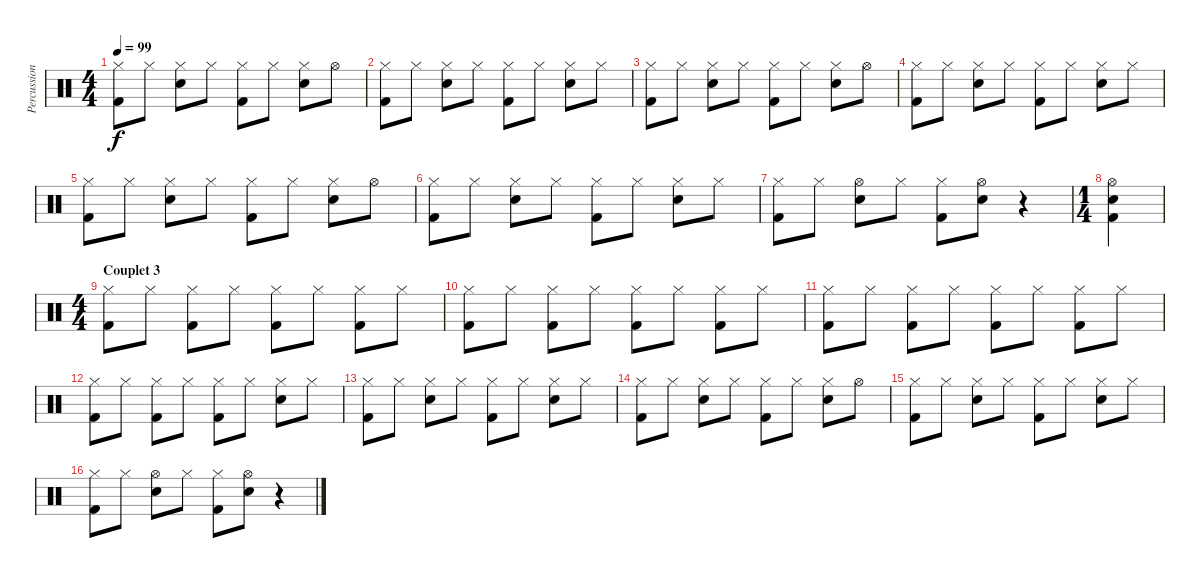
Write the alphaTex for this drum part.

\track ("Percussions" "Percussion") {instrument percussion}
\staff {score}
\articulation defaults
\ts (4 4)
\tempo 99
\clef neutral
\ks c
("Hi-Hat (closed)" "Kick (hit) 2").8{dy f} "Hi-Hat (closed)".8 ("Hi-Hat (closed)" "Electric Snare (hit)").8 "Hi-Hat (closed)".8 ("Hi-Hat (closed)" "Kick (hit) 2").8 "Hi-Hat (closed)".8 ("Hi-Hat (closed)" "Electric Snare (hit)").8 "Hi-Hat (open)".8 |
("Hi-Hat (closed)" "Kick (hit) 2").8 "Hi-Hat (closed)".8 ("Hi-Hat (closed)" "Electric Snare (hit)").8 "Hi-Hat (closed)".8 ("Hi-Hat (closed)" "Kick (hit) 2").8 "Hi-Hat (closed)".8 ("Hi-Hat (closed)" "Electric Snare (hit)").8 "Hi-Hat (closed)".8 |
("Hi-Hat (closed)" "Kick (hit) 2").8 "Hi-Hat (closed)".8 ("Hi-Hat (closed)" "Electric Snare (hit)").8 "Hi-Hat (closed)".8 ("Hi-Hat (closed)" "Kick (hit) 2").8 "Hi-Hat (closed)".8 ("Hi-Hat (closed)" "Electric Snare (hit)").8 "Hi-Hat (open)".8 |
("Hi-Hat (closed)" "Kick (hit) 2").8 "Hi-Hat (closed)".8 ("Hi-Hat (closed)" "Electric Snare (hit)").8 "Hi-Hat (closed)".8 ("Hi-Hat (closed)" "Kick (hit) 2").8 "Hi-Hat (closed)".8 ("Hi-Hat (closed)" "Electric Snare (hit)").8 "Hi-Hat (closed)".8 |
("Hi-Hat (closed)" "Kick (hit) 2").8 "Hi-Hat (closed)".8 ("Hi-Hat (closed)" "Electric Snare (hit)").8 "Hi-Hat (closed)".8 ("Hi-Hat (closed)" "Kick (hit) 2").8 "Hi-Hat (closed)".8 ("Hi-Hat (closed)" "Electric Snare (hit)").8 "Hi-Hat (open)".8 |
("Hi-Hat (closed)" "Kick (hit) 2").8 "Hi-Hat (closed)".8 ("Hi-Hat (closed)" "Electric Snare (hit)").8 "Hi-Hat (closed)".8 ("Hi-Hat (closed)" "Kick (hit) 2").8 "Hi-Hat (closed)".8 ("Hi-Hat (closed)" "Electric Snare (hit)").8 "Hi-Hat (closed)".8 |
("Hi-Hat (closed)" "Kick (hit) 2").8 "Hi-Hat (closed)".8 ("Hi-Hat (open)" "Electric Snare (hit)").8 "Hi-Hat (closed)".8 ("Hi-Hat (closed)" "Kick (hit) 2").8 ("Hi-Hat (open)" "Electric Snare (hit)").8 r.4 |
\ts (1 4)
("Hi-Hat (open)" "Electric Snare (hit)" "Kick (hit) 2").4 |
\ts (4 4)
\section ("" "Couplet 3")
("Hi-Hat (closed)" "Kick (hit) 2").8 "Hi-Hat (closed)".8 ("Hi-Hat (closed)" "Kick (hit) 2").8 "Hi-Hat (closed)".8 ("Hi-Hat (closed)" "Kick (hit) 2").8 "Hi-Hat (closed)".8 ("Hi-Hat (closed)" "Kick (hit) 2").8 "Hi-Hat (closed)".8 |
("Hi-Hat (closed)" "Kick (hit) 2").8 "Hi-Hat (closed)".8 ("Hi-Hat (closed)" "Kick (hit) 2").8 "Hi-Hat (closed)".8 ("Hi-Hat (closed)" "Kick (hit) 2").8 "Hi-Hat (closed)".8 ("Hi-Hat (closed)" "Kick (hit) 2").8 "Hi-Hat (closed)".8 |
("Hi-Hat (closed)" "Kick (hit) 2").8 "Hi-Hat (closed)".8 ("Hi-Hat (closed)" "Kick (hit) 2").8 "Hi-Hat (closed)".8 ("Hi-Hat (closed)" "Kick (hit) 2").8 "Hi-Hat (closed)".8 ("Hi-Hat (closed)" "Kick (hit) 2").8 "Hi-Hat (closed)".8 |
("Hi-Hat (closed)" "Kick (hit) 2").8 "Hi-Hat (closed)".8 ("Hi-Hat (closed)" "Kick (hit) 2").8 "Hi-Hat (closed)".8 ("Hi-Hat (closed)" "Kick (hit) 2").8 "Hi-Hat (closed)".8 ("Hi-Hat (closed)" "Electric Snare (hit)").8 "Hi-Hat (closed)".8 |
("Hi-Hat (closed)" "Kick (hit) 2").8 "Hi-Hat (closed)".8 ("Hi-Hat (closed)" "Electric Snare (hit)").8 "Hi-Hat (closed)".8 ("Hi-Hat (closed)" "Kick (hit) 2").8 "Hi-Hat (closed)".8 ("Hi-Hat (closed)" "Electric Snare (hit)").8 "Hi-Hat (closed)".8 |
("Hi-Hat (closed)" "Kick (hit) 2").8 "Hi-Hat (closed)".8 ("Hi-Hat (closed)" "Electric Snare (hit)").8 "Hi-Hat (closed)".8 ("Hi-Hat (closed)" "Kick (hit) 2").8 "Hi-Hat (closed)".8 ("Hi-Hat (closed)" "Electric Snare (hit)").8 "Hi-Hat (open)".8 |
("Hi-Hat (closed)" "Kick (hit) 2").8 "Hi-Hat (closed)".8 ("Hi-Hat (closed)" "Electric Snare (hit)").8 "Hi-Hat (closed)".8 ("Hi-Hat (closed)" "Kick (hit) 2").8 "Hi-Hat (closed)".8 ("Hi-Hat (closed)" "Electric Snare (hit)").8 "Hi-Hat (closed)".8 |
("Hi-Hat (closed)" "Kick (hit) 2").8 "Hi-Hat (closed)".8 ("Hi-Hat (open)" "Electric Snare (hit)").8 "Hi-Hat (closed)".8 ("Hi-Hat (closed)" "Kick (hit) 2").8 ("Hi-Hat (open)" "Electric Snare (hit)").8 r.4
